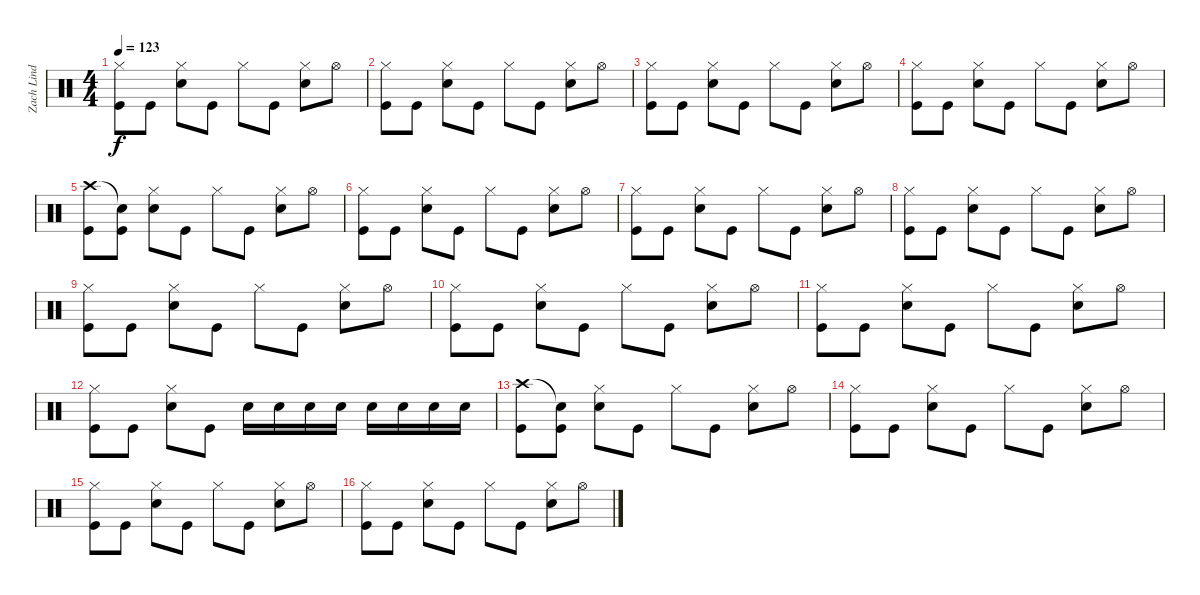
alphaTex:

\track ("Zach Lind (Drums)" "Zach Lind ") {instrument percussion}
\staff {score}
\articulation defaults
\ts (4 4)
\tempo 123
\clef neutral
\ks c
("Hi-Hat (closed)" "Kick (hit)").8{dy f} "Kick (hit)".8 ("Hi-Hat (closed)" "Snare (hit) 2").8 "Kick (hit)".8 "Hi-Hat (closed)".8 "Kick (hit)".8 ("Hi-Hat (closed)" "Snare (hit) 2").8 "Hi-Hat (open)".8 |
("Hi-Hat (closed)" "Kick (hit)").8 "Kick (hit)".8 ("Hi-Hat (closed)" "Snare (hit) 2").8 "Kick (hit)".8 "Hi-Hat (closed)".8 "Kick (hit)".8 ("Hi-Hat (closed)" "Snare (hit) 2").8 "Hi-Hat (open)".8 |
("Hi-Hat (closed)" "Kick (hit)").8 "Kick (hit)".8 ("Hi-Hat (closed)" "Snare (hit) 2").8 "Kick (hit)".8 "Hi-Hat (closed)".8 "Kick (hit)".8 ("Hi-Hat (closed)" "Snare (hit) 2").8 "Hi-Hat (open)".8 |
("Hi-Hat (closed)" "Kick (hit)").8 "Kick (hit)".8 ("Hi-Hat (closed)" "Snare (hit) 2").8 "Kick (hit)".8 "Hi-Hat (closed)".8 "Kick (hit)".8 ("Hi-Hat (closed)" "Snare (hit) 2").8 "Hi-Hat (open)".8 |
("Crash high (hit)" "Kick (hit)").8 ("Snare (hit)"{t} "Kick (hit)").8 ("Hi-Hat (closed)" "Snare (hit) 2").8 "Kick (hit)".8 "Hi-Hat (closed)".8 "Kick (hit)".8 ("Hi-Hat (closed)" "Snare (hit) 2").8 "Hi-Hat (open)".8 |
("Hi-Hat (closed)" "Kick (hit)").8 "Kick (hit)".8 ("Hi-Hat (closed)" "Snare (hit) 2").8 "Kick (hit)".8 "Hi-Hat (closed)".8 "Kick (hit)".8 ("Hi-Hat (closed)" "Snare (hit) 2").8 "Hi-Hat (open)".8 |
("Hi-Hat (closed)" "Kick (hit)").8 "Kick (hit)".8 ("Hi-Hat (closed)" "Snare (hit) 2").8 "Kick (hit)".8 "Hi-Hat (closed)".8 "Kick (hit)".8 ("Hi-Hat (closed)" "Snare (hit) 2").8 "Hi-Hat (open)".8 |
("Hi-Hat (closed)" "Kick (hit)").8 "Kick (hit)".8 ("Hi-Hat (closed)" "Snare (hit) 2").8 "Kick (hit)".8 "Hi-Hat (closed)".8 "Kick (hit)".8 ("Hi-Hat (closed)" "Snare (hit) 2").8 "Hi-Hat (open)".8 |
("Hi-Hat (closed)" "Kick (hit)").8 "Kick (hit)".8 ("Hi-Hat (closed)" "Snare (hit) 2").8 "Kick (hit)".8 "Hi-Hat (closed)".8 "Kick (hit)".8 ("Hi-Hat (closed)" "Snare (hit) 2").8 "Hi-Hat (open)".8 |
("Hi-Hat (closed)" "Kick (hit)").8 "Kick (hit)".8 ("Hi-Hat (closed)" "Snare (hit) 2").8 "Kick (hit)".8 "Hi-Hat (closed)".8 "Kick (hit)".8 ("Hi-Hat (closed)" "Snare (hit) 2").8 "Hi-Hat (open)".8 |
("Hi-Hat (closed)" "Kick (hit)").8 "Kick (hit)".8 ("Hi-Hat (closed)" "Snare (hit) 2").8 "Kick (hit)".8 "Hi-Hat (closed)".8 "Kick (hit)".8 ("Hi-Hat (closed)" "Snare (hit) 2").8 "Hi-Hat (open)".8 |
("Hi-Hat (closed)" "Kick (hit)").8 "Kick (hit)".8 ("Hi-Hat (closed)" "Snare (hit) 2").8 "Kick (hit)".8 "Snare (hit) 2".16 "Snare (hit) 2".16 "Snare (hit) 2".16 "Snare (hit) 2".16 "Snare (hit) 2".16 "Snare (hit) 2".16 "Snare (hit) 2".16 "Snare (hit) 2".16 |
("Crash high (hit)" "Kick (hit)").8 ("Snare (hit)"{t} "Kick (hit)").8 ("Hi-Hat (closed)" "Snare (hit) 2").8 "Kick (hit)".8 "Hi-Hat (closed)".8 "Kick (hit)".8 ("Hi-Hat (closed)" "Snare (hit) 2").8 "Hi-Hat (open)".8 |
("Hi-Hat (closed)" "Kick (hit)").8 "Kick (hit)".8 ("Hi-Hat (closed)" "Snare (hit) 2").8 "Kick (hit)".8 "Hi-Hat (closed)".8 "Kick (hit)".8 ("Hi-Hat (closed)" "Snare (hit) 2").8 "Hi-Hat (open)".8 |
("Hi-Hat (closed)" "Kick (hit)").8 "Kick (hit)".8 ("Hi-Hat (closed)" "Snare (hit) 2").8 "Kick (hit)".8 "Hi-Hat (closed)".8 "Kick (hit)".8 ("Hi-Hat (closed)" "Snare (hit) 2").8 "Hi-Hat (open)".8 |
("Hi-Hat (closed)" "Kick (hit)").8 "Kick (hit)".8 ("Hi-Hat (closed)" "Snare (hit) 2").8 "Kick (hit)".8 "Hi-Hat (closed)".8 "Kick (hit)".8 ("Hi-Hat (closed)" "Snare (hit) 2").8 "Hi-Hat (open)".8
